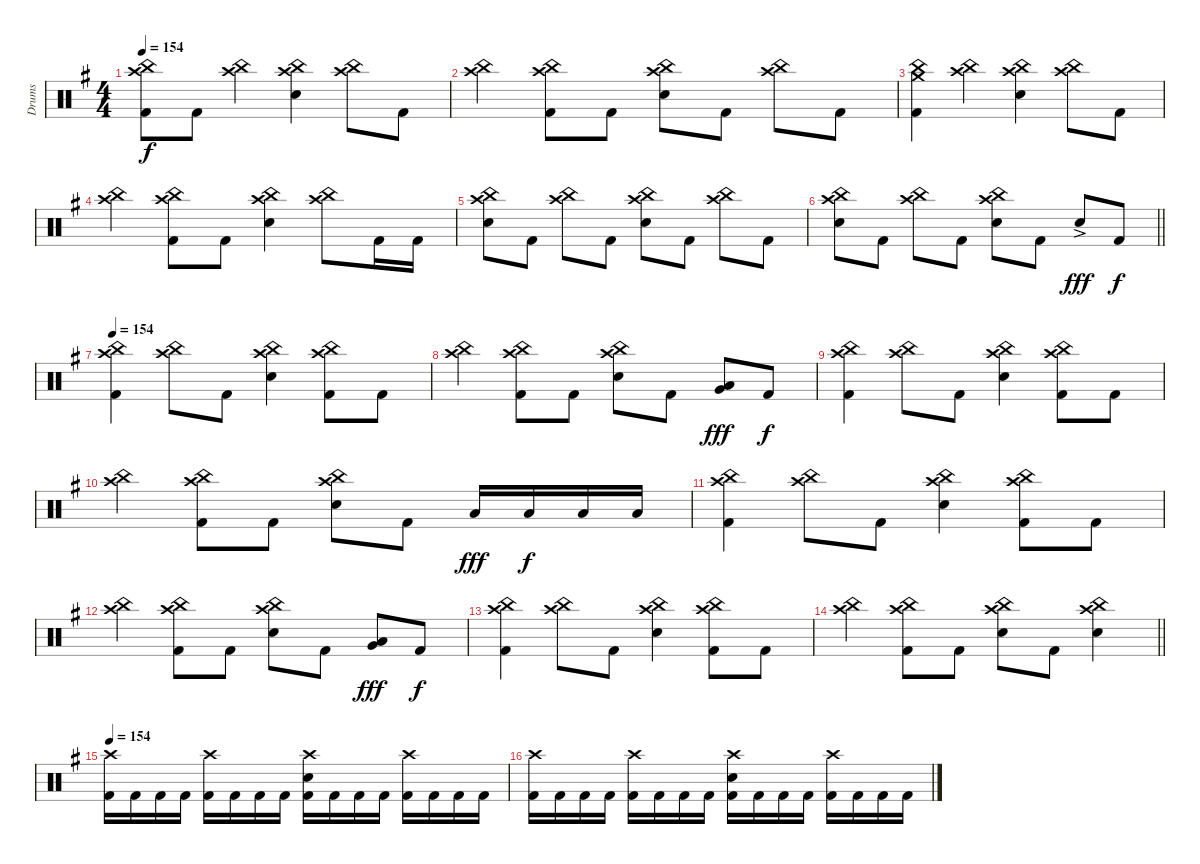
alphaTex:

\track ("Drums" "Drums") {instrument percussion}
\staff {score}
\articulation defaults
\ts (4 4)
\tempo 154
\clef neutral
\ks eminor
("Crash high (hit)" "China (hit)" "Kick (hit) 2").8{dy f} "Kick (hit) 2".8 ("Crash high (hit)" "China (hit)").4 ("Crash high (hit)" "China (hit)" "Snare (hit) 2").4 ("Crash high (hit)" "China (hit)").8 "Kick (hit) 2".8 |
("Crash high (hit)" "China (hit)").4 ("Crash high (hit)" "China (hit)" "Kick (hit) 2").8 "Kick (hit) 2".8 ("Crash high (hit)" "China (hit)" "Snare (hit) 2").8 "Kick (hit) 2".8 ("Crash high (hit)" "China (hit)").8 "Kick (hit) 2".8 |
("Crash medium (hit)" "China (hit)" "Kick (hit) 2").4 ("Crash high (hit)" "China (hit)").4 ("Crash high (hit)" "China (hit)" "Snare (hit) 2").4 ("Crash high (hit)" "China (hit)").8 "Kick (hit) 2".8 |
("Crash high (hit)" "China (hit)").4 ("Crash high (hit)" "China (hit)" "Kick (hit) 2").8 "Kick (hit) 2".8 ("Crash high (hit)" "China (hit)" "Snare (hit) 2").4 ("Crash high (hit)" "China (hit)").8 "Kick (hit) 2".16 "Kick (hit) 2".16 |
("Crash high (hit)" "China (hit)" "Snare (hit) 2").8 "Kick (hit) 2".8 ("Crash high (hit)" "China (hit)").8 "Kick (hit) 2".8 ("Crash high (hit)" "China (hit)" "Snare (hit) 2").8 "Kick (hit) 2".8 ("Crash high (hit)" "China (hit)").8 "Kick (hit) 2".8 |
\barLineRight lightlight
("Crash high (hit)" "China (hit)" "Snare (hit) 2").8 "Kick (hit) 2".8 ("Crash high (hit)" "China (hit)").8 "Kick (hit) 2".8 ("Crash high (hit)" "China (hit)" "Snare (hit) 2").8 "Kick (hit) 2".8 "Snare (hit) 2"{ac}.8{dy fff} "Kick (hit) 2".8{dy f} |
\tempo 154
("Crash high (hit)" "China (hit)" "Kick (hit) 2").4 ("Crash high (hit)" "China (hit)").8 "Kick (hit) 2".8 ("Crash high (hit)" "China (hit)" "Snare (hit) 2").4 ("Crash high (hit)" "China (hit)" "Kick (hit) 2").8 "Kick (hit) 2".8 |
("Crash high (hit)" "China (hit)").4 ("Crash high (hit)" "China (hit)" "Kick (hit) 2").8 "Kick (hit) 2".8 ("Crash high (hit)" "China (hit)" "Snare (hit) 2").8 "Kick (hit) 2".8 ("Low Tom (hit)" "Very Low Tom (hit)").8{dy fff} "Kick (hit) 2".8{dy f} |
("Crash high (hit)" "China (hit)" "Kick (hit) 2").4 ("Crash high (hit)" "China (hit)").8 "Kick (hit) 2".8 ("Crash high (hit)" "China (hit)" "Snare (hit) 2").4 ("Crash high (hit)" "China (hit)" "Kick (hit) 2").8 "Kick (hit) 2".8 |
("Crash high (hit)" "China (hit)").4 ("Crash high (hit)" "China (hit)" "Kick (hit) 2").8 "Kick (hit) 2".8 ("Crash high (hit)" "China (hit)" "Snare (hit) 2").8 "Kick (hit) 2".8 "Low Tom (hit)".16{dy fff} "Low Tom (hit)".16{dy f} "Low Tom (hit)".16 "Low Tom (hit)".16 |
("Crash high (hit)" "China (hit)" "Kick (hit) 2").4 ("Crash high (hit)" "China (hit)").8 "Kick (hit) 2".8 ("Crash high (hit)" "China (hit)" "Snare (hit) 2").4 ("Crash high (hit)" "China (hit)" "Kick (hit) 2").8 "Kick (hit) 2".8 |
("Crash high (hit)" "China (hit)").4 ("Crash high (hit)" "China (hit)" "Kick (hit) 2").8 "Kick (hit) 2".8 ("Crash high (hit)" "China (hit)" "Snare (hit) 2").8 "Kick (hit) 2".8 ("Low Tom (hit)" "Very Low Tom (hit)").8{dy fff} "Kick (hit) 2".8{dy f} |
("Crash high (hit)" "China (hit)" "Kick (hit) 2").4 ("Crash high (hit)" "China (hit)").8 "Kick (hit) 2".8 ("Crash high (hit)" "China (hit)" "Snare (hit) 2").4 ("Crash high (hit)" "China (hit)" "Kick (hit) 2").8 "Kick (hit) 2".8 |
\barLineRight lightlight
("Crash high (hit)" "China (hit)").4 ("Crash high (hit)" "China (hit)" "Kick (hit) 2").8 "Kick (hit) 2".8 ("Crash high (hit)" "China (hit)" "Snare (hit) 2").8 "Kick (hit) 2".8 ("Crash high (hit)" "China (hit)" "Snare (hit) 2").4 |
\tempo 154
("Crash high (hit)" "Kick (hit) 2").16 "Kick (hit) 2".16 "Kick (hit) 2".16 "Kick (hit) 2".16 ("Crash high (hit)" "Kick (hit) 2").16 "Kick (hit) 2".16 "Kick (hit) 2".16 "Kick (hit) 2".16 ("Crash high (hit)" "Snare (hit) 2" "Kick (hit) 2").16 "Kick (hit) 2".16 "Kick (hit) 2".16 "Kick (hit) 2".16 ("Crash high (hit)" "Kick (hit) 2").16 "Kick (hit) 2".16 "Kick (hit) 2".16 "Kick (hit) 2".16 |
("Crash high (hit)" "Kick (hit) 2").16 "Kick (hit) 2".16 "Kick (hit) 2".16 "Kick (hit) 2".16 ("Crash high (hit)" "Kick (hit) 2").16 "Kick (hit) 2".16 "Kick (hit) 2".16 "Kick (hit) 2".16 ("Crash high (hit)" "Snare (hit) 2" "Kick (hit) 2").16 "Kick (hit) 2".16 "Kick (hit) 2".16 "Kick (hit) 2".16 ("Crash high (hit)" "Kick (hit) 2").16 "Kick (hit) 2".16 "Kick (hit) 2".16 "Kick (hit) 2".16
